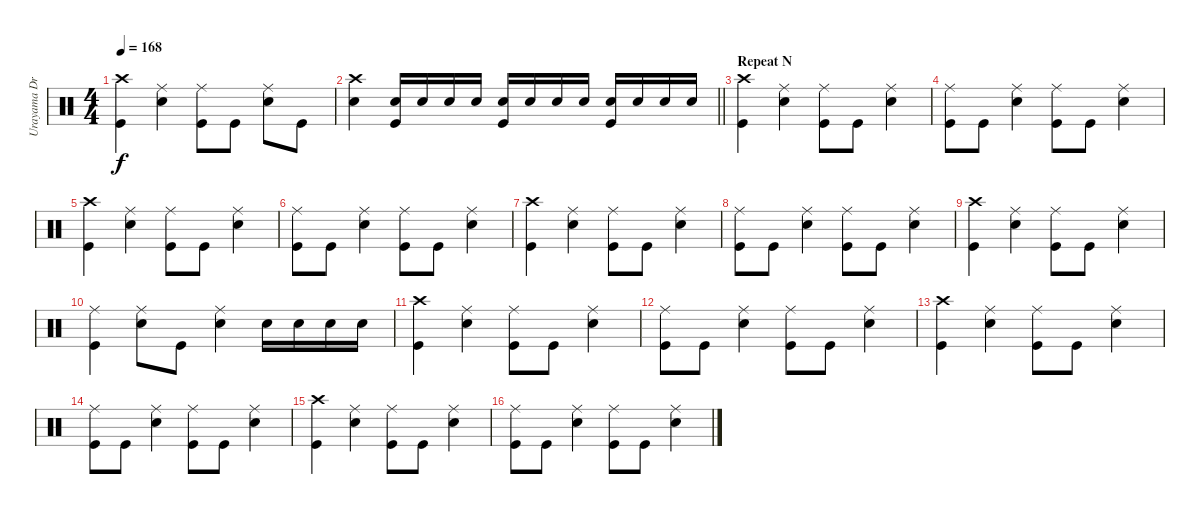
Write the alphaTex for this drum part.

\track ("Urayama Drums" "Urayama Dr") {instrument percussion}
\staff {score}
\articulation defaults
\ts (4 4)
\tempo 168
\clef neutral
\ks c
("Crash high (hit)" "Kick (hit)").4{dy f} ("Ride (middle)" "Electric Snare (hit)").4 ("Ride (middle)" "Kick (hit)").8 "Kick (hit)".8 ("Ride (middle)" "Electric Snare (hit)").8 "Kick (hit)".8 |
\barLineRight lightlight
("Crash high (hit)" "Electric Snare (hit)").4 ("Electric Snare (hit)" "Kick (hit)").16 "Electric Snare (hit)".16 "Electric Snare (hit)".16 "Electric Snare (hit)".16 ("Electric Snare (hit)" "Kick (hit)").16 "Electric Snare (hit)".16 "Electric Snare (hit)".16 "Electric Snare (hit)".16 ("Electric Snare (hit)" "Kick (hit)").16 "Electric Snare (hit)".16 "Electric Snare (hit)".16 "Electric Snare (hit)".16 |
\section ("" "Repeat N")
("Crash high (hit)" "Kick (hit)").4 ("Ride (middle)" "Electric Snare (hit)").4 ("Ride (middle)" "Kick (hit)").8 "Kick (hit)".8 ("Ride (middle)" "Electric Snare (hit)").4 |
("Ride (middle)" "Kick (hit)").8 "Kick (hit)".8 ("Ride (middle)" "Electric Snare (hit)").4 ("Ride (middle)" "Kick (hit)").8 "Kick (hit)".8 ("Ride (middle)" "Electric Snare (hit)").4 |
("Crash high (hit)" "Kick (hit)").4 ("Ride (middle)" "Electric Snare (hit)").4 ("Ride (middle)" "Kick (hit)").8 "Kick (hit)".8 ("Ride (middle)" "Electric Snare (hit)").4 |
("Ride (middle)" "Kick (hit)").8 "Kick (hit)".8 ("Ride (middle)" "Electric Snare (hit)").4 ("Ride (middle)" "Kick (hit)").8 "Kick (hit)".8 ("Ride (middle)" "Electric Snare (hit)").4 |
("Crash high (hit)" "Kick (hit)").4 ("Ride (middle)" "Electric Snare (hit)").4 ("Ride (middle)" "Kick (hit)").8 "Kick (hit)".8 ("Ride (middle)" "Electric Snare (hit)").4 |
("Ride (middle)" "Kick (hit)").8 "Kick (hit)".8 ("Ride (middle)" "Electric Snare (hit)").4 ("Ride (middle)" "Kick (hit)").8 "Kick (hit)".8 ("Ride (middle)" "Electric Snare (hit)").4 |
("Crash high (hit)" "Kick (hit)").4 ("Ride (middle)" "Electric Snare (hit)").4 ("Ride (middle)" "Kick (hit)").8 "Kick (hit)".8 ("Ride (middle)" "Electric Snare (hit)").4 |
("Ride (middle)" "Kick (hit)").4 ("Ride (middle)" "Electric Snare (hit)").8 "Kick (hit)".8 ("Ride (middle)" "Electric Snare (hit)").4 "Electric Snare (hit)".16 "Electric Snare (hit)".16 "Electric Snare (hit)".16 "Electric Snare (hit)".16 |
("Crash high (hit)" "Kick (hit)").4 ("Ride (middle)" "Electric Snare (hit)").4 ("Ride (middle)" "Kick (hit)").8 "Kick (hit)".8 ("Ride (middle)" "Electric Snare (hit)").4 |
("Ride (middle)" "Kick (hit)").8 "Kick (hit)".8 ("Ride (middle)" "Electric Snare (hit)").4 ("Ride (middle)" "Kick (hit)").8 "Kick (hit)".8 ("Ride (middle)" "Electric Snare (hit)").4 |
("Crash high (hit)" "Kick (hit)").4 ("Ride (middle)" "Electric Snare (hit)").4 ("Ride (middle)" "Kick (hit)").8 "Kick (hit)".8 ("Ride (middle)" "Electric Snare (hit)").4 |
("Ride (middle)" "Kick (hit)").8 "Kick (hit)".8 ("Ride (middle)" "Electric Snare (hit)").4 ("Ride (middle)" "Kick (hit)").8 "Kick (hit)".8 ("Ride (middle)" "Electric Snare (hit)").4 |
("Crash high (hit)" "Kick (hit)").4 ("Ride (middle)" "Electric Snare (hit)").4 ("Ride (middle)" "Kick (hit)").8 "Kick (hit)".8 ("Ride (middle)" "Electric Snare (hit)").4 |
("Ride (middle)" "Kick (hit)").8 "Kick (hit)".8 ("Ride (middle)" "Electric Snare (hit)").4 ("Ride (middle)" "Kick (hit)").8 "Kick (hit)".8 ("Ride (middle)" "Electric Snare (hit)").4
